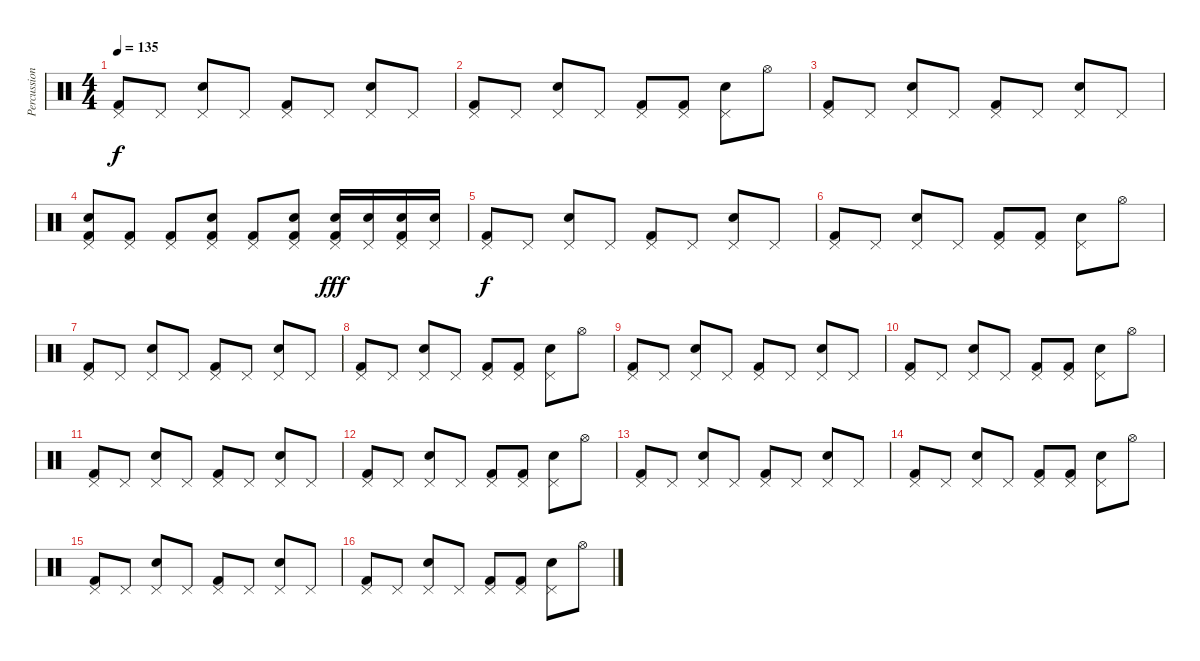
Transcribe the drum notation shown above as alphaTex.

\track ("Percussion" "Percussion") {instrument percussion}
\staff {score}
\articulation defaults
\ts (4 4)
\tempo 135
\clef neutral
\ks c
("Pedal Hi-Hat (hit)" "Kick (hit) 2").8{dy f} "Pedal Hi-Hat (hit)".8 ("Pedal Hi-Hat (hit)" "Electric Snare (hit)").8 "Pedal Hi-Hat (hit)".8 ("Pedal Hi-Hat (hit)" "Kick (hit) 2").8 "Pedal Hi-Hat (hit)".8 ("Pedal Hi-Hat (hit)" "Electric Snare (hit)").8 "Pedal Hi-Hat (hit)".8 |
("Pedal Hi-Hat (hit)" "Kick (hit) 2").8 "Pedal Hi-Hat (hit)".8 ("Pedal Hi-Hat (hit)" "Electric Snare (hit)").8 "Pedal Hi-Hat (hit)".8 ("Pedal Hi-Hat (hit)" "Kick (hit) 2").8 ("Pedal Hi-Hat (hit)" "Kick (hit) 2").8 ("Pedal Hi-Hat (hit)" "Electric Snare (hit)").8 "Hi-Hat (open)".8 |
("Pedal Hi-Hat (hit)" "Kick (hit) 2").8 "Pedal Hi-Hat (hit)".8 ("Pedal Hi-Hat (hit)" "Electric Snare (hit)").8 "Pedal Hi-Hat (hit)".8 ("Pedal Hi-Hat (hit)" "Kick (hit) 2").8 "Pedal Hi-Hat (hit)".8 ("Pedal Hi-Hat (hit)" "Electric Snare (hit)").8 "Pedal Hi-Hat (hit)".8 |
("Pedal Hi-Hat (hit)" "Kick (hit) 2" "Electric Snare (hit)").8 ("Pedal Hi-Hat (hit)" "Kick (hit) 2").8 ("Pedal Hi-Hat (hit)" "Kick (hit) 2").8 ("Pedal Hi-Hat (hit)" "Kick (hit) 2" "Electric Snare (hit)").8 ("Pedal Hi-Hat (hit)" "Kick (hit) 2").8 ("Pedal Hi-Hat (hit)" "Kick (hit) 2" "Electric Snare (hit)").8 ("Pedal Hi-Hat (hit)" "Kick (hit) 2" "Electric Snare (hit)").16{dy fff} ("Pedal Hi-Hat (hit)" "Electric Snare (hit)").16 ("Pedal Hi-Hat (hit)" "Kick (hit) 2" "Electric Snare (hit)").16 ("Pedal Hi-Hat (hit)" "Electric Snare (hit)").16 |
("Pedal Hi-Hat (hit)" "Kick (hit) 2").8{dy f} "Pedal Hi-Hat (hit)".8 ("Pedal Hi-Hat (hit)" "Electric Snare (hit)").8 "Pedal Hi-Hat (hit)".8 ("Pedal Hi-Hat (hit)" "Kick (hit) 2").8 "Pedal Hi-Hat (hit)".8 ("Pedal Hi-Hat (hit)" "Electric Snare (hit)").8 "Pedal Hi-Hat (hit)".8 |
("Pedal Hi-Hat (hit)" "Kick (hit) 2").8 "Pedal Hi-Hat (hit)".8 ("Pedal Hi-Hat (hit)" "Electric Snare (hit)").8 "Pedal Hi-Hat (hit)".8 ("Pedal Hi-Hat (hit)" "Kick (hit) 2").8 ("Pedal Hi-Hat (hit)" "Kick (hit) 2").8 ("Pedal Hi-Hat (hit)" "Electric Snare (hit)").8 "Hi-Hat (open)".8 |
("Pedal Hi-Hat (hit)" "Kick (hit) 2").8 "Pedal Hi-Hat (hit)".8 ("Pedal Hi-Hat (hit)" "Electric Snare (hit)").8 "Pedal Hi-Hat (hit)".8 ("Pedal Hi-Hat (hit)" "Kick (hit) 2").8 "Pedal Hi-Hat (hit)".8 ("Pedal Hi-Hat (hit)" "Electric Snare (hit)").8 "Pedal Hi-Hat (hit)".8 |
("Pedal Hi-Hat (hit)" "Kick (hit) 2").8 "Pedal Hi-Hat (hit)".8 ("Pedal Hi-Hat (hit)" "Electric Snare (hit)").8 "Pedal Hi-Hat (hit)".8 ("Pedal Hi-Hat (hit)" "Kick (hit) 2").8 ("Pedal Hi-Hat (hit)" "Kick (hit) 2").8 ("Pedal Hi-Hat (hit)" "Electric Snare (hit)").8 "Hi-Hat (open)".8 |
("Pedal Hi-Hat (hit)" "Kick (hit) 2").8 "Pedal Hi-Hat (hit)".8 ("Pedal Hi-Hat (hit)" "Electric Snare (hit)").8 "Pedal Hi-Hat (hit)".8 ("Pedal Hi-Hat (hit)" "Kick (hit) 2").8 "Pedal Hi-Hat (hit)".8 ("Pedal Hi-Hat (hit)" "Electric Snare (hit)").8 "Pedal Hi-Hat (hit)".8 |
("Pedal Hi-Hat (hit)" "Kick (hit) 2").8 "Pedal Hi-Hat (hit)".8 ("Pedal Hi-Hat (hit)" "Electric Snare (hit)").8 "Pedal Hi-Hat (hit)".8 ("Pedal Hi-Hat (hit)" "Kick (hit) 2").8 ("Pedal Hi-Hat (hit)" "Kick (hit) 2").8 ("Pedal Hi-Hat (hit)" "Electric Snare (hit)").8 "Hi-Hat (open)".8 |
("Pedal Hi-Hat (hit)" "Kick (hit) 2").8 "Pedal Hi-Hat (hit)".8 ("Pedal Hi-Hat (hit)" "Electric Snare (hit)").8 "Pedal Hi-Hat (hit)".8 ("Pedal Hi-Hat (hit)" "Kick (hit) 2").8 "Pedal Hi-Hat (hit)".8 ("Pedal Hi-Hat (hit)" "Electric Snare (hit)").8 "Pedal Hi-Hat (hit)".8 |
("Pedal Hi-Hat (hit)" "Kick (hit) 2").8 "Pedal Hi-Hat (hit)".8 ("Pedal Hi-Hat (hit)" "Electric Snare (hit)").8 "Pedal Hi-Hat (hit)".8 ("Pedal Hi-Hat (hit)" "Kick (hit) 2").8 ("Pedal Hi-Hat (hit)" "Kick (hit) 2").8 ("Pedal Hi-Hat (hit)" "Electric Snare (hit)").8 "Hi-Hat (open)".8 |
("Pedal Hi-Hat (hit)" "Kick (hit) 2").8 "Pedal Hi-Hat (hit)".8 ("Pedal Hi-Hat (hit)" "Electric Snare (hit)").8 "Pedal Hi-Hat (hit)".8 ("Pedal Hi-Hat (hit)" "Kick (hit) 2").8 "Pedal Hi-Hat (hit)".8 ("Pedal Hi-Hat (hit)" "Electric Snare (hit)").8 "Pedal Hi-Hat (hit)".8 |
("Pedal Hi-Hat (hit)" "Kick (hit) 2").8 "Pedal Hi-Hat (hit)".8 ("Pedal Hi-Hat (hit)" "Electric Snare (hit)").8 "Pedal Hi-Hat (hit)".8 ("Pedal Hi-Hat (hit)" "Kick (hit) 2").8 ("Pedal Hi-Hat (hit)" "Kick (hit) 2").8 ("Pedal Hi-Hat (hit)" "Electric Snare (hit)").8 "Hi-Hat (open)".8 |
("Pedal Hi-Hat (hit)" "Kick (hit) 2").8 "Pedal Hi-Hat (hit)".8 ("Pedal Hi-Hat (hit)" "Electric Snare (hit)").8 "Pedal Hi-Hat (hit)".8 ("Pedal Hi-Hat (hit)" "Kick (hit) 2").8 "Pedal Hi-Hat (hit)".8 ("Pedal Hi-Hat (hit)" "Electric Snare (hit)").8 "Pedal Hi-Hat (hit)".8 |
("Pedal Hi-Hat (hit)" "Kick (hit) 2").8 "Pedal Hi-Hat (hit)".8 ("Pedal Hi-Hat (hit)" "Electric Snare (hit)").8 "Pedal Hi-Hat (hit)".8 ("Pedal Hi-Hat (hit)" "Kick (hit) 2").8 ("Pedal Hi-Hat (hit)" "Kick (hit) 2").8 ("Pedal Hi-Hat (hit)" "Electric Snare (hit)").8 "Hi-Hat (open)".8
